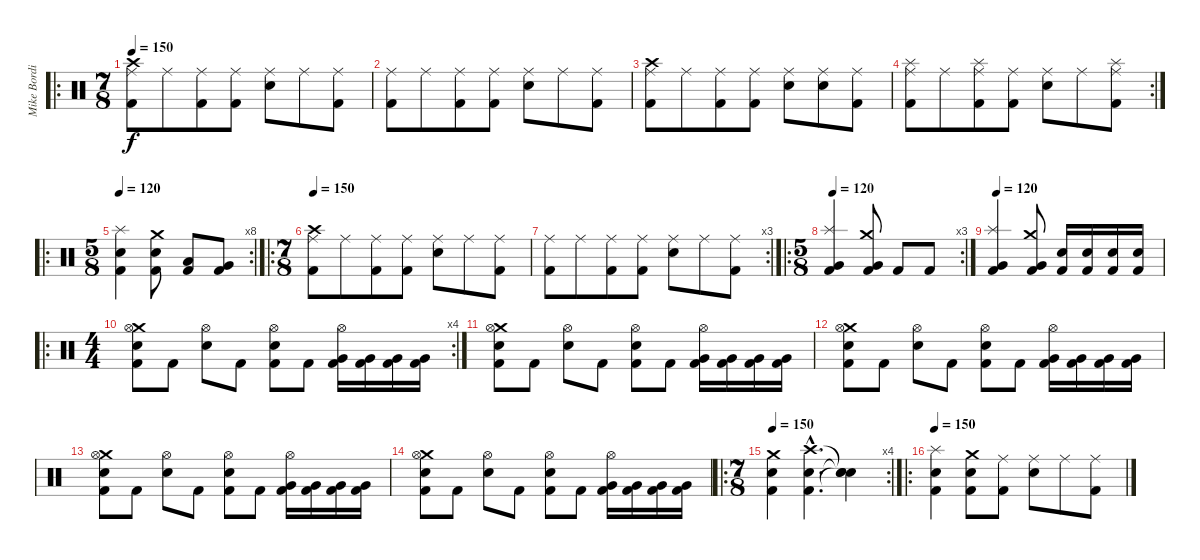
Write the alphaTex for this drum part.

\track ("Mike Bordin" "Mike Bordi") {instrument percussion}
\staff {score}
\articulation defaults
\ro
\ts (7 8)
\tempo 150
\clef neutral
\ks c
("Crash high (hit)" "Ride (middle)" "Kick (hit) 2").8{dy f} "Ride (middle)".8 ("Ride (middle)" "Kick (hit) 2").8 ("Ride (middle)" "Kick (hit) 2").8 ("Ride (middle)" "Electric Snare (hit)").8 "Ride (middle)".8 ("Ride (middle)" "Kick (hit) 2").8 |
("Ride (middle)" "Kick (hit) 2").8 "Ride (middle)".8 ("Ride (middle)" "Kick (hit) 2").8 ("Ride (middle)" "Kick (hit) 2").8 ("Ride (middle)" "Electric Snare (hit)").8 "Ride (middle)".8 ("Ride (middle)" "Kick (hit) 2").8 |
("Crash high (hit)" "Ride (middle)" "Kick (hit) 2").8 "Ride (middle)".8 ("Ride (middle)" "Kick (hit) 2").8 ("Ride (middle)" "Kick (hit) 2").8 ("Ride (middle)" "Electric Snare (hit)").8 ("Ride (middle)" "Electric Snare (hit)").8 ("Ride (middle)" "Kick (hit) 2").8 |
\rc 2
("Splash (hit)" "Ride (middle)" "Kick (hit) 2").8 "Ride (middle)".8 ("Splash (hit)" "Ride (middle)" "Kick (hit) 2").8 ("Ride (middle)" "Kick (hit) 2").8 ("Ride (middle)" "Electric Snare (hit)").8 "Ride (middle)".8 ("Splash (hit)" "Ride (middle)" "Kick (hit) 2").8 |
\ro
\rc 8
\ts (5 8)
\tempo 120
("Splash (hit)" "Electric Snare (hit)" "Kick (hit) 2").4 ("Crash medium (hit)" "Electric Snare (hit)" "Kick (hit) 2").8 ("Low Tom (hit)" "Kick (hit) 2").8 ("Very Low Tom (hit)" "Kick (hit) 2").8 |
\ro
\ts (7 8)
\tempo 150
("Crash high (hit)" "Ride (middle)" "Kick (hit) 2").8 "Ride (middle)".8 ("Ride (middle)" "Kick (hit) 2").8 ("Ride (middle)" "Kick (hit) 2").8 ("Ride (middle)" "Electric Snare (hit)").8 "Ride (middle)".8 ("Ride (middle)" "Kick (hit) 2").8 |
\rc 3
("Ride (middle)" "Kick (hit) 2").8 "Ride (middle)".8 ("Ride (middle)" "Kick (hit) 2").8 ("Ride (middle)" "Kick (hit) 2").8 ("Ride (middle)" "Electric Snare (hit)").8 "Ride (middle)".8 ("Ride (middle)" "Kick (hit) 2").8 |
\ro
\rc 3
\ts (5 8)
\tempo 120
("Splash (hit)" "Very Low Tom (hit)" "Kick (hit) 2").4 ("Crash medium (hit)" "Very Low Tom (hit)" "Kick (hit) 2").8 "Kick (hit) 2".8 "Kick (hit) 2".8 |
\tempo 120
("Splash (hit)" "Very Low Tom (hit)" "Kick (hit) 2").4 ("Crash medium (hit)" "Very Low Tom (hit)" "Kick (hit) 2").8 ("Electric Snare (hit)" "Kick (hit) 2").16 ("Electric Snare (hit)" "Kick (hit) 2").16 ("Electric Snare (hit)" "Kick (hit) 2").16 ("Electric Snare (hit)" "Kick (hit) 2").16 |
\ro
\rc 4
\ts (4 4)
("Crash medium (hit)" "Hi-Hat (open)" "Electric Snare (hit)" "Kick (hit) 2").8 "Kick (hit) 2".8 ("Hi-Hat (open)" "Electric Snare (hit)").8 "Kick (hit) 2".8 ("Hi-Hat (open)" "Electric Snare (hit)" "Kick (hit) 2").8 "Kick (hit) 2".8 ("Hi-Hat (open)" "Very Low Tom (hit)" "Kick (hit) 2").16 ("Very Low Tom (hit)" "Kick (hit) 2").16 ("Very Low Tom (hit)" "Kick (hit) 2").16 ("Very Low Tom (hit)" "Kick (hit) 2").16 |
("Crash medium (hit)" "Hi-Hat (open)" "Electric Snare (hit)" "Kick (hit) 2").8 "Kick (hit) 2".8 ("Hi-Hat (open)" "Electric Snare (hit)").8 "Kick (hit) 2".8 ("Hi-Hat (open)" "Electric Snare (hit)" "Kick (hit) 2").8 "Kick (hit) 2".8 ("Hi-Hat (open)" "Very Low Tom (hit)" "Kick (hit) 2").16 ("Very Low Tom (hit)" "Kick (hit) 2").16 ("Very Low Tom (hit)" "Kick (hit) 2").16 ("Very Low Tom (hit)" "Kick (hit) 2").16 |
("Crash medium (hit)" "Hi-Hat (open)" "Electric Snare (hit)" "Kick (hit) 2").8 "Kick (hit) 2".8 ("Hi-Hat (open)" "Electric Snare (hit)").8 "Kick (hit) 2".8 ("Hi-Hat (open)" "Electric Snare (hit)" "Kick (hit) 2").8 "Kick (hit) 2".8 ("Hi-Hat (open)" "Very Low Tom (hit)" "Kick (hit) 2").16 ("Very Low Tom (hit)" "Kick (hit) 2").16 ("Very Low Tom (hit)" "Kick (hit) 2").16 ("Very Low Tom (hit)" "Kick (hit) 2").16 |
("Crash medium (hit)" "Hi-Hat (open)" "Electric Snare (hit)" "Kick (hit) 2").8 "Kick (hit) 2".8 ("Hi-Hat (open)" "Electric Snare (hit)").8 "Kick (hit) 2".8 ("Hi-Hat (open)" "Electric Snare (hit)" "Kick (hit) 2").8 "Kick (hit) 2".8 ("Hi-Hat (open)" "Very Low Tom (hit)" "Kick (hit) 2").16 ("Very Low Tom (hit)" "Kick (hit) 2").16 ("Very Low Tom (hit)" "Kick (hit) 2").16 ("Very Low Tom (hit)" "Kick (hit) 2").16 |
("Crash medium (hit)" "Hi-Hat (open)" "Electric Snare (hit)" "Kick (hit) 2").8 "Kick (hit) 2".8 ("Hi-Hat (open)" "Electric Snare (hit)").8 "Kick (hit) 2".8 ("Hi-Hat (open)" "Electric Snare (hit)" "Kick (hit) 2").8 "Kick (hit) 2".8 ("Hi-Hat (open)" "Very Low Tom (hit)" "Kick (hit) 2").16 ("Very Low Tom (hit)" "Kick (hit) 2").16 ("Very Low Tom (hit)" "Kick (hit) 2").16 ("Very Low Tom (hit)" "Kick (hit) 2").16 |
\ro
\rc 4
\ts (7 8)
\tempo 150
("Crash medium (hit)" "Electric Snare (hit)" "Kick (hit) 2").4 ("Crash high (hit)"{hac} "Electric Snare (hit)"{hac} "Kick (hit) 2"{hac}).4{d} ("Snare (hit)"{t} "Snare (hit)"{t} "Snare (hit)"{t}).4 |
\ro
\tempo 150
("Splash (hit)" "Electric Snare (hit)" "Kick (hit) 2").4 ("Crash medium (hit)" "Electric Snare (hit)" "Kick (hit) 2").8 ("Ride (middle)" "Kick (hit) 2").8 ("Ride (middle)" "Electric Snare (hit)").8 "Ride (middle)".8 ("Ride (middle)" "Kick (hit) 2").8
